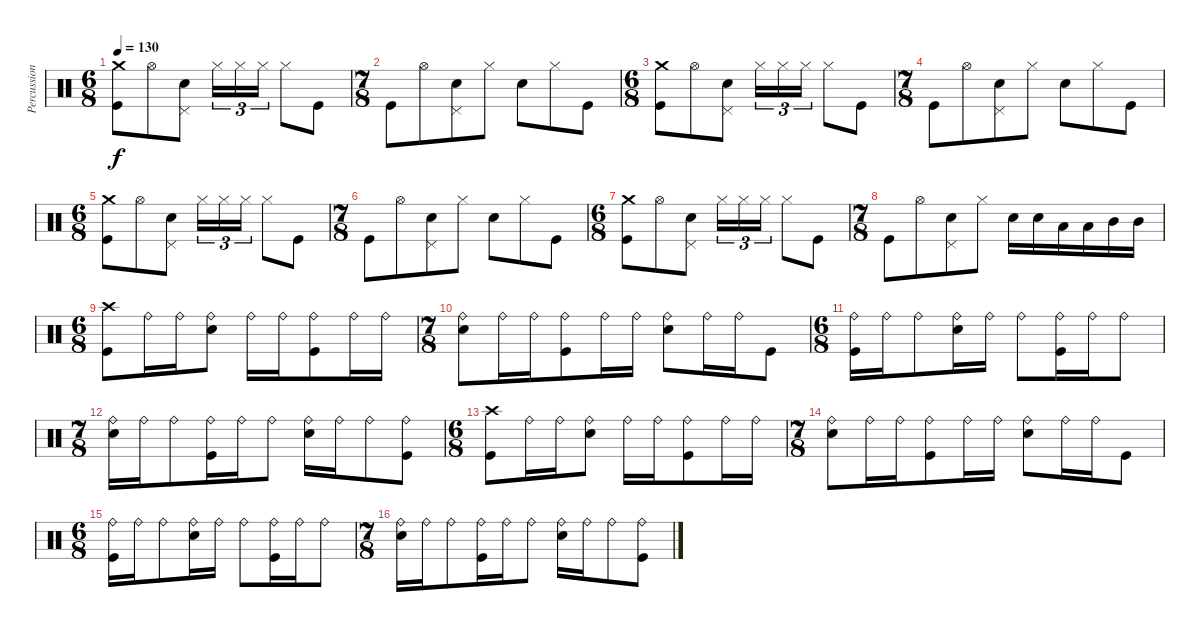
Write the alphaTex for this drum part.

\track ("Percussion" "Percussion") {instrument percussion}
\staff {score}
\articulation defaults
\ts (6 8)
\tempo 130
\clef neutral
\ks c
("Crash medium (hit)" "Kick (hit)").8{dy f} "Hi-Hat (open)".8 ("Snare (hit) 2" "Pedal Hi-Hat (hit)").8 "Hi-Hat (closed)".16{tu (3 2)} "Hi-Hat (closed)".16{tu (3 2)} "Hi-Hat (closed)".16{tu (3 2)} "Hi-Hat (closed)".8 "Kick (hit)".8 |
\ts (7 8)
"Kick (hit)".8 "Hi-Hat (open)".8 ("Snare (hit) 2" "Pedal Hi-Hat (hit)").8 "Hi-Hat (closed)".8 "Snare (hit) 2".8 "Hi-Hat (closed)".8 "Kick (hit)".8 |
\ts (6 8)
("Crash medium (hit)" "Kick (hit)").8 "Hi-Hat (open)".8 ("Snare (hit) 2" "Pedal Hi-Hat (hit)").8 "Hi-Hat (closed)".16{tu (3 2)} "Hi-Hat (closed)".16{tu (3 2)} "Hi-Hat (closed)".16{tu (3 2)} "Hi-Hat (closed)".8 "Kick (hit)".8 |
\ts (7 8)
"Kick (hit)".8 "Hi-Hat (open)".8 ("Snare (hit) 2" "Pedal Hi-Hat (hit)").8 "Hi-Hat (closed)".8 "Snare (hit) 2".8 "Hi-Hat (closed)".8 "Kick (hit)".8 |
\ts (6 8)
("Crash medium (hit)" "Kick (hit)").8 "Hi-Hat (open)".8 ("Snare (hit) 2" "Pedal Hi-Hat (hit)").8 "Hi-Hat (closed)".16{tu (3 2)} "Hi-Hat (closed)".16{tu (3 2)} "Hi-Hat (closed)".16{tu (3 2)} "Hi-Hat (closed)".8 "Kick (hit)".8 |
\ts (7 8)
"Kick (hit)".8 "Hi-Hat (open)".8 ("Snare (hit) 2" "Pedal Hi-Hat (hit)").8 "Hi-Hat (closed)".8 "Snare (hit) 2".8 "Hi-Hat (closed)".8 "Kick (hit)".8 |
\ts (6 8)
("Crash medium (hit)" "Kick (hit)").8 "Hi-Hat (open)".8 ("Snare (hit) 2" "Pedal Hi-Hat (hit)").8 "Hi-Hat (closed)".16{tu (3 2)} "Hi-Hat (closed)".16{tu (3 2)} "Hi-Hat (closed)".16{tu (3 2)} "Hi-Hat (closed)".8 "Kick (hit)".8 |
\ts (7 8)
"Kick (hit)".8 "Hi-Hat (open)".8 ("Snare (hit) 2" "Pedal Hi-Hat (hit)").8 "Hi-Hat (closed)".8 "Electric Snare (hit)".16 "Electric Snare (hit)".16 "Low Tom (hit)".16 "Low Tom (hit)".16 "Mid Tom (hit)".16 "Mid Tom (hit)".16 |
\ts (6 8)
("Crash high (hit)" "Kick (hit)").8 "Ride (bell)".16 "Ride (bell)".16 ("Ride (bell)" "Snare (hit) 2").8 "Ride (bell)".16 "Ride (bell)".16 ("Ride (bell)" "Kick (hit)").8 "Ride (bell)".16 "Ride (bell)".16 |
\ts (7 8)
("Ride (bell)" "Snare (hit) 2").8 "Ride (bell)".16 "Ride (bell)".16 ("Ride (bell)" "Kick (hit)").8 "Ride (bell)".16 "Ride (bell)".16 ("Ride (bell)" "Snare (hit) 2").8 "Ride (bell)".16 "Ride (bell)".16 "Kick (hit)".8 |
\ts (6 8)
("Ride (bell)" "Kick (hit)").16 "Ride (bell)".16 "Ride (bell)".8 ("Ride (bell)" "Snare (hit) 2").16 "Ride (bell)".16 "Ride (bell)".8 ("Ride (bell)" "Kick (hit)").16 "Ride (bell)".16 "Ride (bell)".8 |
\ts (7 8)
("Ride (bell)" "Snare (hit) 2").16 "Ride (bell)".16 "Ride (bell)".8 ("Ride (bell)" "Kick (hit)").16 "Ride (bell)".16 "Ride (bell)".8 ("Ride (bell)" "Snare (hit) 2").16 "Ride (bell)".16 "Ride (bell)".8 ("Ride (bell)" "Kick (hit)").8 |
\ts (6 8)
("Crash high (hit)" "Kick (hit)").8 "Ride (bell)".16 "Ride (bell)".16 ("Ride (bell)" "Snare (hit) 2").8 "Ride (bell)".16 "Ride (bell)".16 ("Ride (bell)" "Kick (hit)").8 "Ride (bell)".16 "Ride (bell)".16 |
\ts (7 8)
("Ride (bell)" "Snare (hit) 2").8 "Ride (bell)".16 "Ride (bell)".16 ("Ride (bell)" "Kick (hit)").8 "Ride (bell)".16 "Ride (bell)".16 ("Ride (bell)" "Snare (hit) 2").8 "Ride (bell)".16 "Ride (bell)".16 "Kick (hit)".8 |
\ts (6 8)
("Ride (bell)" "Kick (hit)").16 "Ride (bell)".16 "Ride (bell)".8 ("Ride (bell)" "Snare (hit) 2").16 "Ride (bell)".16 "Ride (bell)".8 ("Ride (bell)" "Kick (hit)").16 "Ride (bell)".16 "Ride (bell)".8 |
\ts (7 8)
("Ride (bell)" "Snare (hit) 2").16 "Ride (bell)".16 "Ride (bell)".8 ("Ride (bell)" "Kick (hit)").16 "Ride (bell)".16 "Ride (bell)".8 ("Ride (bell)" "Snare (hit) 2").16 "Ride (bell)".16 "Ride (bell)".8 ("Ride (bell)" "Kick (hit)").8
